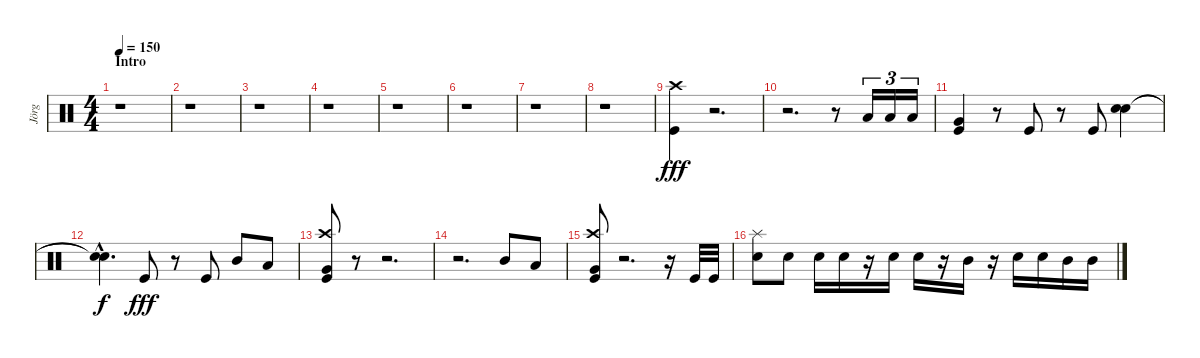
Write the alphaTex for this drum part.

\track ("Jörg" "Jörg") {instrument percussion}
\staff {score}
\articulation defaults
\ts (4 4)
\section ("" "Intro")
\tempo 150
\clef neutral
\ks c
r.1{dy fff} |
r.1 |
r.1 |
r.1 |
r.1 |
r.1 |
r.1 |
r.1 |
("Kick (hit)" "Crash high (hit)").4 r.2{d} |
r.2{d} r.8 "Low Tom (hit)".16{tu (3 2)} "Low Tom (hit)".16{tu (3 2)} "Low Tom (hit)".16{tu (3 2)} |
("Very Low Tom (hit)" "Kick (hit)").4 r.8 "Kick (hit)".8 r.8 "Kick (hit)".8 ("Snare (hit) 2" "Snare (hit) 2").4 |
("Snare (hit)"{hac t} "Snare (hit)"{hac t}).4{d dy f} "Kick (hit)".8{dy fff} r.8 "Kick (hit)".8 "Mid Tom (hit)".8 "Low Tom (hit)".8 |
("Very Low Tom (hit)" "Crash high (hit)" "Kick (hit)").8 r.8 r.2{d} |
r.2{d} "Mid Tom (hit)".8 "Low Tom (hit)".8 |
("Very Low Tom (hit)" "Crash high (hit)" "Kick (hit)").8 r.2{d} r.16 "Kick (hit)".32 "Kick (hit)".32 |
("Splash (hit)" "Snare (hit) 2").8 "Snare (hit) 2".8 "Snare (hit) 2".16 "Snare (hit) 2".16 r.16 "Snare (hit) 2".16 "Snare (hit) 2".16 r.16 "Mid Tom (hit)".16 r.16 "Snare (hit) 2".16 "Snare (hit) 2".16 "Mid Tom (hit)".16 "Mid Tom (hit)".16
